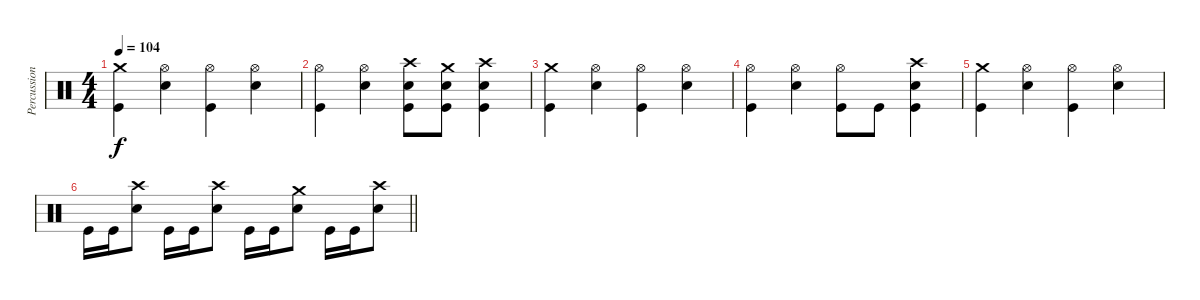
\track ("Percussions" "Percussion") {instrument percussion}
\staff {score}
\articulation defaults
\ts (4 4)
\tempo 104
\clef neutral
\ks c
("Crash medium (hit)" "Kick (hit)").4{dy f} ("Hi-Hat (open)" "Electric Snare (hit)").4 ("Hi-Hat (open)" "Kick (hit)").4 ("Hi-Hat (open)" "Electric Snare (hit)").4 |
("Hi-Hat (open)" "Kick (hit)").4 ("Hi-Hat (open)" "Electric Snare (hit)").4 ("Crash high (hit)" "Electric Snare (hit)" "Kick (hit)").8 ("Crash medium (hit)" "Electric Snare (hit)" "Kick (hit)").8 ("Crash high (hit)" "Electric Snare (hit)" "Kick (hit)").4 |
("Crash medium (hit)" "Kick (hit)").4 ("Hi-Hat (open)" "Electric Snare (hit)").4 ("Hi-Hat (open)" "Kick (hit)").4 ("Hi-Hat (open)" "Electric Snare (hit)").4 |
("Hi-Hat (open)" "Kick (hit)").4 ("Hi-Hat (open)" "Electric Snare (hit)").4 ("Hi-Hat (open)" "Kick (hit)").8 "Kick (hit)".8 ("Crash high (hit)" "Electric Snare (hit)" "Kick (hit)").4 |
("Crash medium (hit)" "Kick (hit)").4 ("Hi-Hat (open)" "Electric Snare (hit)").4 ("Hi-Hat (open)" "Kick (hit)").4 ("Hi-Hat (open)" "Electric Snare (hit)").4 |
\barLineRight lightlight "Kick (hit)".16 "Kick (hit)".16
("Crash high (hit)" "Electric Snare (hit)").8 "Kick (hit)".16 "Kick (hit)".16 ("Crash high (hit)" "Electric Snare (hit)").8 "Kick (hit)".16 "Kick (hit)".16 ("Crash medium (hit)" "Electric Snare (hit)").8 "Kick (hit)".16 "Kick (hit)".16 ("Crash high (hit)" "Electric Snare (hit)").8
